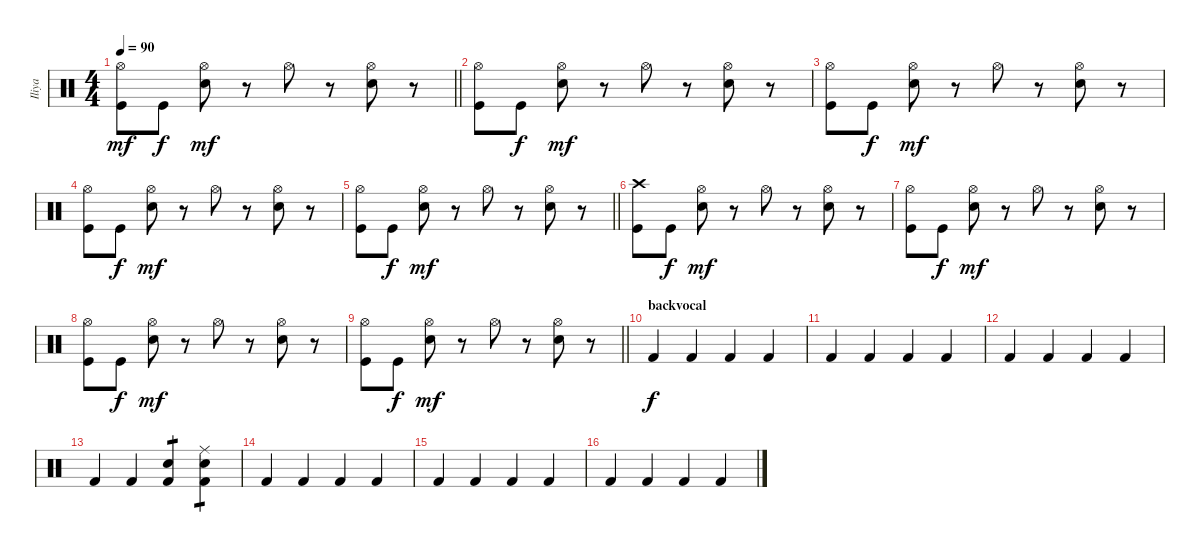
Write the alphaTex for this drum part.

\track ("Iliya" "Iliya") {instrument percussion}
\staff {score}
\articulation defaults
\ts (4 4)
\tempo 90
\clef neutral
\barLineRight lightlight
\ks c
("Kick (hit)" "Hi-Hat (open)").8{dy mf} "Kick (hit)".8{dy f} ("Electric Snare (hit)" "Hi-Hat (open)").8{dy mf} r.8 "Hi-Hat (open)".8 r.8 ("Electric Snare (hit)" "Hi-Hat (open)").8 r.8 |
("Kick (hit)" "Hi-Hat (open)").8 "Kick (hit)".8{dy f} ("Electric Snare (hit)" "Hi-Hat (open)").8{dy mf} r.8 "Hi-Hat (open)".8 r.8 ("Electric Snare (hit)" "Hi-Hat (open)").8 r.8 |
("Kick (hit)" "Hi-Hat (open)").8 "Kick (hit)".8{dy f} ("Electric Snare (hit)" "Hi-Hat (open)").8{dy mf} r.8 "Hi-Hat (open)".8 r.8 ("Electric Snare (hit)" "Hi-Hat (open)").8 r.8 |
("Kick (hit)" "Hi-Hat (open)").8 "Kick (hit)".8{dy f} ("Electric Snare (hit)" "Hi-Hat (open)").8{dy mf} r.8 "Hi-Hat (open)".8 r.8 ("Electric Snare (hit)" "Hi-Hat (open)").8 r.8 |
\barLineRight lightlight
("Kick (hit)" "Hi-Hat (open)").8 "Kick (hit)".8{dy f} ("Electric Snare (hit)" "Hi-Hat (open)").8{dy mf} r.8 "Hi-Hat (open)".8 r.8 ("Electric Snare (hit)" "Hi-Hat (open)").8 r.8 |
("Kick (hit)" "Crash high (hit)").8 "Kick (hit)".8{dy f} ("Electric Snare (hit)" "Hi-Hat (open)").8{dy mf} r.8 "Hi-Hat (open)".8 r.8 ("Electric Snare (hit)" "Hi-Hat (open)").8 r.8 |
("Kick (hit)" "Hi-Hat (open)").8 "Kick (hit)".8{dy f} ("Electric Snare (hit)" "Hi-Hat (open)").8{dy mf} r.8 "Hi-Hat (open)".8 r.8 ("Electric Snare (hit)" "Hi-Hat (open)").8 r.8 |
("Kick (hit)" "Hi-Hat (open)").8 "Kick (hit)".8{dy f} ("Electric Snare (hit)" "Hi-Hat (open)").8{dy mf} r.8 "Hi-Hat (open)".8 r.8 ("Electric Snare (hit)" "Hi-Hat (open)").8 r.8 |
\barLineRight lightlight
("Kick (hit)" "Hi-Hat (open)").8 "Kick (hit)".8{dy f} ("Electric Snare (hit)" "Hi-Hat (open)").8{dy mf} r.8 "Hi-Hat (open)".8 r.8 ("Electric Snare (hit)" "Hi-Hat (open)").8 r.8 |
\section ("" "backvocal")
"Kick (hit) 2".4{dy f} "Kick (hit) 2".4 "Kick (hit) 2".4 "Kick (hit) 2".4 |
"Kick (hit) 2".4 "Kick (hit) 2".4 "Kick (hit) 2".4 "Kick (hit) 2".4 |
"Kick (hit) 2".4 "Kick (hit) 2".4 "Kick (hit) 2".4 "Kick (hit) 2".4 |
"Kick (hit) 2".4 "Kick (hit) 2".4 ("Kick (hit) 2" "Snare (hit) 2").4{tp 1} ("Kick (hit) 2" "Snare (hit) 2" "Ride (middle)").4{tp 1} |
"Kick (hit) 2".4 "Kick (hit) 2".4 "Kick (hit) 2".4 "Kick (hit) 2".4 |
"Kick (hit) 2".4 "Kick (hit) 2".4 "Kick (hit) 2".4 "Kick (hit) 2".4 |
"Kick (hit) 2".4 "Kick (hit) 2".4 "Kick (hit) 2".4 "Kick (hit) 2".4
